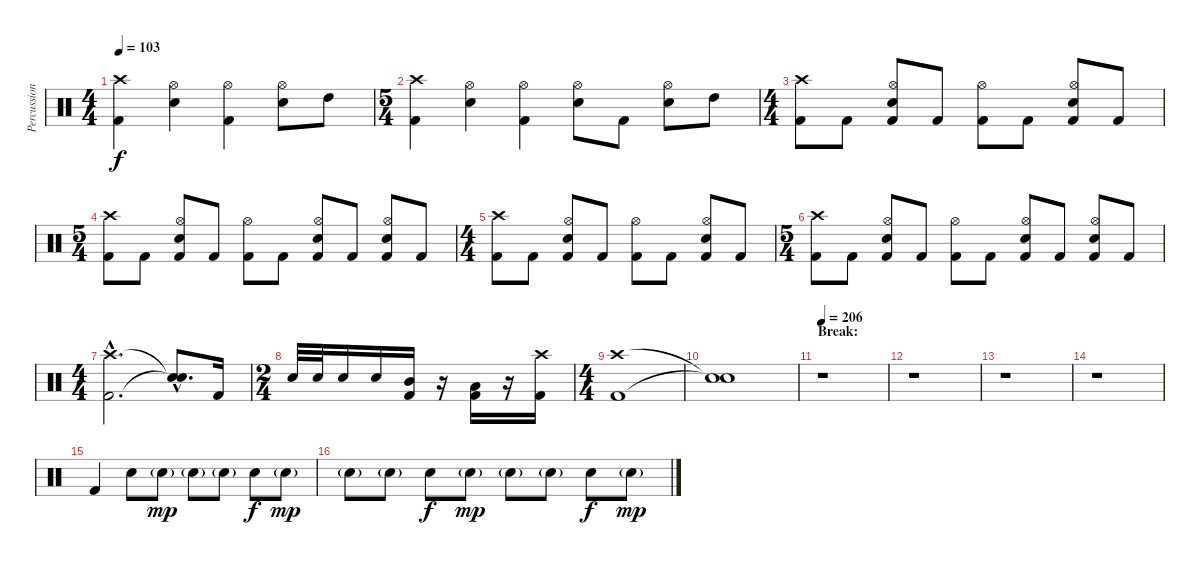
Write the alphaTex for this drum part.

\track ("Percussion" "Percussion") {instrument percussion}
\staff {score}
\articulation defaults
\ts (4 4)
\tempo 103
\clef neutral
\ks c
("Crash high (hit)" "Kick (hit) 2").4{dy f} ("Hi-Hat (open)" "Snare (hit) 2").4 ("Hi-Hat (open)" "Kick (hit) 2").4 ("Hi-Hat (open)" "Snare (hit) 2").8 "High Tom (hit)".8 |
\ts (5 4)
("Crash high (hit)" "Kick (hit) 2").4 ("Hi-Hat (open)" "Snare (hit) 2").4 ("Hi-Hat (open)" "Kick (hit) 2").4 ("Hi-Hat (open)" "Snare (hit) 2").8 "Kick (hit) 2".8 ("Hi-Hat (open)" "Snare (hit) 2").8 "High Tom (hit)".8 |
\ts (4 4)
("Crash high (hit)" "Kick (hit) 2").8 "Kick (hit) 2".8 ("Hi-Hat (open)" "Snare (hit) 2" "Kick (hit) 2").8 "Kick (hit) 2".8 ("Hi-Hat (open)" "Kick (hit) 2").8 "Kick (hit) 2".8 ("Hi-Hat (open)" "Snare (hit) 2" "Kick (hit) 2").8 "Kick (hit) 2".8 |
\ts (5 4)
("Crash high (hit)" "Kick (hit) 2").8 "Kick (hit) 2".8 ("Hi-Hat (open)" "Snare (hit) 2" "Kick (hit) 2").8 "Kick (hit) 2".8 ("Hi-Hat (open)" "Kick (hit) 2").8 "Kick (hit) 2".8 ("Hi-Hat (open)" "Snare (hit) 2" "Kick (hit) 2").8 "Kick (hit) 2".8 ("Hi-Hat (open)" "Snare (hit) 2" "Kick (hit) 2").8 "Kick (hit) 2".8 |
\ts (4 4)
("Crash high (hit)" "Kick (hit) 2").8 "Kick (hit) 2".8 ("Hi-Hat (open)" "Snare (hit) 2" "Kick (hit) 2").8 "Kick (hit) 2".8 ("Hi-Hat (open)" "Kick (hit) 2").8 "Kick (hit) 2".8 ("Hi-Hat (open)" "Snare (hit) 2" "Kick (hit) 2").8 "Kick (hit) 2".8 |
\ts (5 4)
("Crash high (hit)" "Kick (hit) 2").8 "Kick (hit) 2".8 ("Hi-Hat (open)" "Snare (hit) 2" "Kick (hit) 2").8 "Kick (hit) 2".8 ("Hi-Hat (open)" "Kick (hit) 2").8 "Kick (hit) 2".8 ("Hi-Hat (open)" "Snare (hit) 2" "Kick (hit) 2").8 "Kick (hit) 2".8 ("Hi-Hat (open)" "Snare (hit) 2" "Kick (hit) 2").8 "Kick (hit) 2".8 |
\ts (4 4)
("Crash high (hit)"{hac} "Kick (hit) 2"{hac}).2{d} ("Snare (hit)"{hac t} "Snare (hit)"{hac t}).8{d} "Kick (hit) 2".16 |
\ts (2 4)
"Snare (hit) 2".32 "Snare (hit) 2".32 "Snare (hit) 2".16 "Snare (hit) 2".16 ("Mid Tom (hit)" "Kick (hit) 2").16 r.16 ("Low Tom (hit)" "Kick (hit) 2").16 r.16 ("Crash high (hit)" "Kick (hit) 2").16 |
\ts (4 4)
("Crash high (hit)" "Kick (hit) 2").1 |
("Snare (hit)"{t} "Snare (hit)"{t}).1 |
\section ("" "Break:")
\tempo 206
r.1 |
r.1 |
r.1 |
r.1 |
"Kick (hit) 2".4 "Snare (hit) 2".8 "Snare (hit) 2"{g}.8{dy mp} "Snare (hit) 2"{g}.8 "Snare (hit) 2"{g}.8 "Snare (hit) 2".8{dy f} "Snare (hit) 2"{g}.8{dy mp} |
"Snare (hit) 2"{g}.8 "Snare (hit) 2"{g}.8 "Snare (hit) 2".8{dy f} "Snare (hit) 2"{g}.8{dy mp} "Snare (hit) 2"{g}.8 "Snare (hit) 2"{g}.8 "Snare (hit) 2".8{dy f} "Snare (hit) 2"{g}.8{dy mp}
